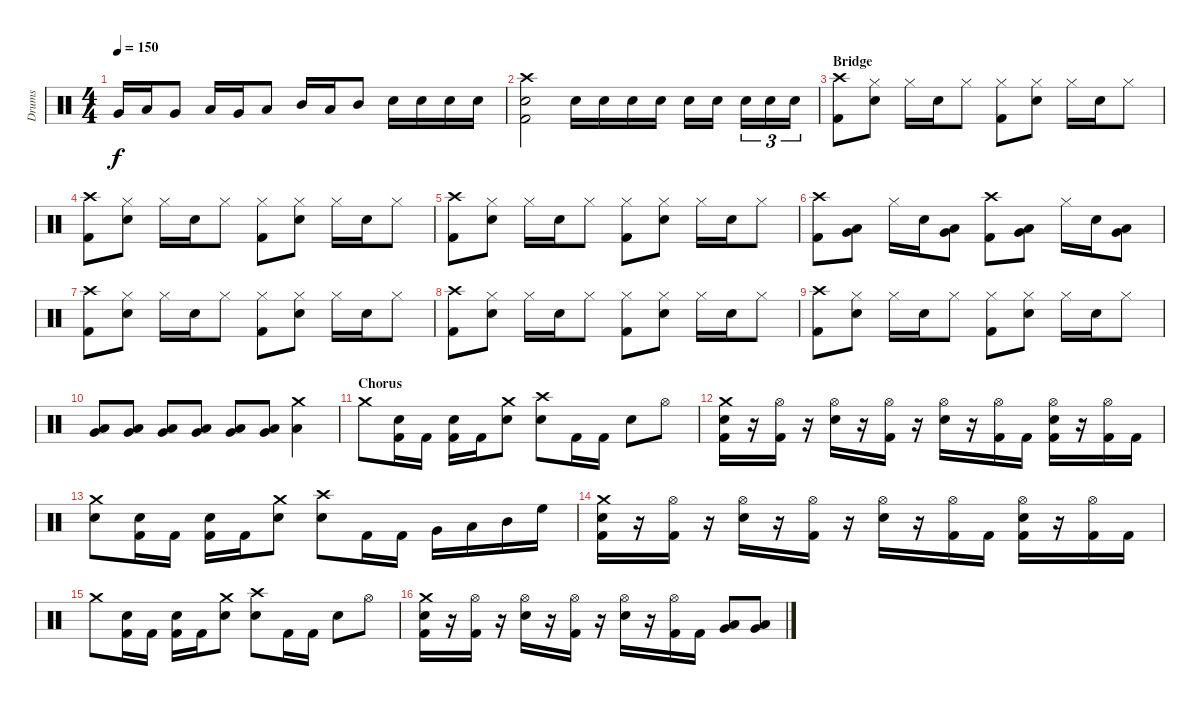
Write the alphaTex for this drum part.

\track ("Drums" "Drums") {instrument percussion}
\staff {score}
\articulation defaults
\ts (4 4)
\tempo 150
\clef neutral
\ks c "Very Low Tom (hit)".16{dy f} "Low Floor Tom (hit)".16 "Very Low Tom (hit)".8 "Low Tom (hit)".16 "Very Low Tom (hit)".16 "Low Tom (hit)".8 "Mid Tom (hit)".16 "Low Tom (hit)".16 "Mid Tom (hit)".8 "Snare (hit) 2".16 "Snare (hit) 2".16 "Snare (hit) 2".16 "Snare (hit) 2".16
|
("Kick (hit) 2" "Snare (hit) 2" "Crash high (hit)").2 "Snare (hit) 2".16 "Snare (hit) 2".16 "Snare (hit) 2".16 "Snare (hit) 2".16 "Snare (hit) 2".16 "Snare (hit) 2".16 "Snare (hit) 2".16{tu (3 2)} "Snare (hit) 2".16{tu (3 2)} "Snare (hit) 2".16{tu (3 2)} |
\section ("" "Bridge")
("Kick (hit) 2" "Crash high (hit)").8 ("Snare (hit) 2" "Hi-Hat (closed)").8 "Hi-Hat (closed)".16 "Snare (hit) 2".16 "Hi-Hat (closed)".8 ("Kick (hit) 2" "Hi-Hat (closed)").8 ("Snare (hit) 2" "Hi-Hat (closed)").8 "Hi-Hat (closed)".16 "Snare (hit) 2".16 "Hi-Hat (closed)".8 |
("Kick (hit) 2" "Crash high (hit)").8 ("Snare (hit) 2" "Hi-Hat (closed)").8 "Hi-Hat (closed)".16 "Snare (hit) 2".16 "Hi-Hat (closed)".8 ("Kick (hit) 2" "Hi-Hat (closed)").8 ("Snare (hit) 2" "Hi-Hat (closed)").8 "Hi-Hat (closed)".16 "Snare (hit) 2".16 "Hi-Hat (closed)".8 |
("Kick (hit) 2" "Crash high (hit)").8 ("Snare (hit) 2" "Hi-Hat (closed)").8 "Hi-Hat (closed)".16 "Snare (hit) 2".16 "Hi-Hat (closed)".8 ("Kick (hit) 2" "Hi-Hat (closed)").8 ("Snare (hit) 2" "Hi-Hat (closed)").8 "Hi-Hat (closed)".16 "Snare (hit) 2".16 "Hi-Hat (closed)".8 |
("Kick (hit) 2" "Crash high (hit)").8 ("Low Tom (hit)" "Very Low Tom (hit)").8 "Hi-Hat (closed)".16 "Snare (hit) 2".16 ("Low Tom (hit)" "Very Low Tom (hit)").8 ("Kick (hit) 2" "Crash high (hit)").8 ("Low Tom (hit)" "Very Low Tom (hit)").8 "Hi-Hat (closed)".16 "Snare (hit) 2".16 ("Low Tom (hit)" "Very Low Tom (hit)").8 |
("Kick (hit) 2" "Crash high (hit)").8 ("Snare (hit) 2" "Hi-Hat (closed)").8 "Hi-Hat (closed)".16 "Snare (hit) 2".16 "Hi-Hat (closed)".8 ("Kick (hit) 2" "Hi-Hat (closed)").8 ("Snare (hit) 2" "Hi-Hat (closed)").8 "Hi-Hat (closed)".16 "Snare (hit) 2".16 "Hi-Hat (closed)".8 |
("Kick (hit) 2" "Crash high (hit)").8 ("Snare (hit) 2" "Hi-Hat (closed)").8 "Hi-Hat (closed)".16 "Snare (hit) 2".16 "Hi-Hat (closed)".8 ("Kick (hit) 2" "Hi-Hat (closed)").8 ("Snare (hit) 2" "Hi-Hat (closed)").8 "Hi-Hat (closed)".16 "Snare (hit) 2".16 "Hi-Hat (closed)".8 |
("Kick (hit) 2" "Crash high (hit)").8 ("Snare (hit) 2" "Hi-Hat (closed)").8 "Hi-Hat (closed)".16 "Snare (hit) 2".16 "Hi-Hat (closed)".8 ("Kick (hit) 2" "Hi-Hat (closed)").8 ("Snare (hit) 2" "Hi-Hat (closed)").8 "Hi-Hat (closed)".16 "Snare (hit) 2".16 "Hi-Hat (closed)".8 |
("Low Tom (hit)" "Very Low Tom (hit)").8 ("Low Tom (hit)" "Very Low Tom (hit)").8 ("Low Tom (hit)" "Very Low Tom (hit)").8 ("Low Tom (hit)" "Very Low Tom (hit)").8 ("Low Tom (hit)" "Very Low Tom (hit)").8 ("Low Tom (hit)" "Very Low Tom (hit)").8 ("Low Tom (hit)" "Crash medium (hit)").4 |
\section ("" "Chorus")
"Crash medium (hit)".8 ("Kick (hit) 2" "Snare (hit) 2").16 "Kick (hit) 2".16 ("Kick (hit) 2" "Snare (hit) 2").16 "Kick (hit) 2".16 ("Snare (hit) 2" "Crash medium (hit)").8 ("Snare (hit) 2" "Crash high (hit)").8 "Kick (hit) 2".16 "Kick (hit) 2".16 "Snare (hit) 2".8 "Hi-Hat (open)".8 |
("Kick (hit) 2" "Snare (hit) 2" "Crash medium (hit)").16 r.16 ("Kick (hit) 2" "Hi-Hat (open)").16 r.16 ("Snare (hit) 2" "Hi-Hat (open)").16 r.16 ("Kick (hit) 2" "Hi-Hat (open)").16 r.16 ("Snare (hit) 2" "Hi-Hat (open)").16 r.16 ("Kick (hit) 2" "Hi-Hat (open)").16 "Kick (hit) 2".16 ("Kick (hit) 2" "Snare (hit) 2" "Hi-Hat (open)").16 r.16 ("Kick (hit) 2" "Hi-Hat (open)").16 "Kick (hit) 2".16 |
("Snare (hit) 2" "Crash medium (hit)").8 ("Kick (hit) 2" "Snare (hit) 2").16 "Kick (hit) 2".16 ("Kick (hit) 2" "Snare (hit) 2").16 "Kick (hit) 2".16 ("Snare (hit) 2" "Crash medium (hit)").8 ("Snare (hit) 2" "Crash high (hit)").8 "Kick (hit) 2".16 "Kick (hit) 2".16 "Very Low Tom (hit)".16 "Low Tom (hit)".16 "Mid Tom (hit)".16 "High Floor Tom (hit)".16 |
("Kick (hit) 2" "Snare (hit) 2" "Crash medium (hit)").16 r.16 ("Kick (hit) 2" "Hi-Hat (open)").16 r.16 ("Snare (hit) 2" "Hi-Hat (open)").16 r.16 ("Kick (hit) 2" "Hi-Hat (open)").16 r.16 ("Snare (hit) 2" "Hi-Hat (open)").16 r.16 ("Kick (hit) 2" "Hi-Hat (open)").16 "Kick (hit) 2".16 ("Kick (hit) 2" "Snare (hit) 2" "Hi-Hat (open)").16 r.16 ("Kick (hit) 2" "Hi-Hat (open)").16 "Kick (hit) 2".16 |
"Crash medium (hit)".8 ("Kick (hit) 2" "Snare (hit) 2").16 "Kick (hit) 2".16 ("Kick (hit) 2" "Snare (hit) 2").16 "Kick (hit) 2".16 ("Snare (hit) 2" "Crash medium (hit)").8 ("Snare (hit) 2" "Crash high (hit)").8 "Kick (hit) 2".16 "Kick (hit) 2".16 "Snare (hit) 2".8 "Hi-Hat (open)".8 |
("Kick (hit) 2" "Snare (hit) 2" "Crash medium (hit)").16 r.16 ("Kick (hit) 2" "Hi-Hat (open)").16 r.16 ("Snare (hit) 2" "Hi-Hat (open)").16 r.16 ("Kick (hit) 2" "Hi-Hat (open)").16 r.16 ("Snare (hit) 2" "Hi-Hat (open)").16 r.16 ("Kick (hit) 2" "Hi-Hat (open)").16 "Kick (hit) 2".16 ("Very Low Tom (hit)" "Low Tom (hit)").8 ("Very Low Tom (hit)" "Low Tom (hit)").8
